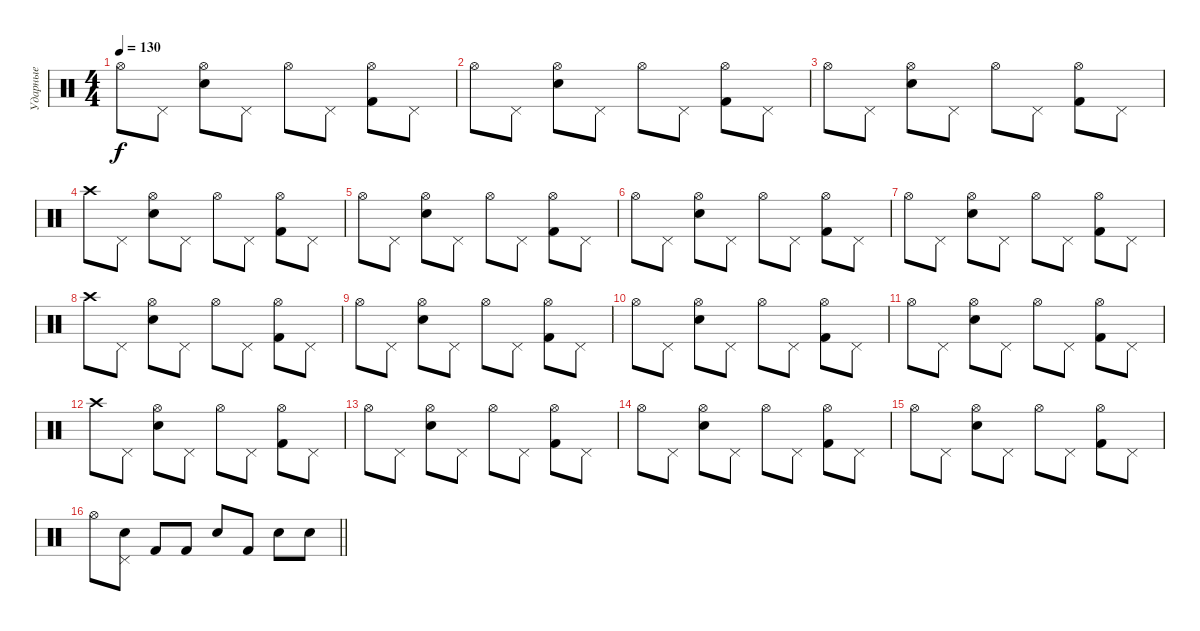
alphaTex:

\track ("Ударные" "Ударные") {instrument percussion}
\staff {score}
\articulation defaults
\ts (4 4)
\tempo 130
\clef neutral
\ks c "Hi-Hat (open)".8{dy f} "Pedal Hi-Hat (hit)".8
("Snare (hit) 2" "Hi-Hat (open)").8 "Pedal Hi-Hat (hit)".8 "Hi-Hat (open)".8 "Pedal Hi-Hat (hit)".8 ("Kick (hit) 2" "Hi-Hat (open)").8 "Pedal Hi-Hat (hit)".8 |
"Hi-Hat (open)".8 "Pedal Hi-Hat (hit)".8 ("Snare (hit) 2" "Hi-Hat (open)").8 "Pedal Hi-Hat (hit)".8 "Hi-Hat (open)".8 "Pedal Hi-Hat (hit)".8 ("Kick (hit) 2" "Hi-Hat (open)").8 "Pedal Hi-Hat (hit)".8 |
"Hi-Hat (open)".8 "Pedal Hi-Hat (hit)".8 ("Snare (hit) 2" "Hi-Hat (open)").8 "Pedal Hi-Hat (hit)".8 "Hi-Hat (open)".8 "Pedal Hi-Hat (hit)".8 ("Kick (hit) 2" "Hi-Hat (open)").8 "Pedal Hi-Hat (hit)".8 |
"Crash high (hit)".8 "Pedal Hi-Hat (hit)".8 ("Snare (hit) 2" "Hi-Hat (open)").8 "Pedal Hi-Hat (hit)".8 "Hi-Hat (open)".8 "Pedal Hi-Hat (hit)".8 ("Kick (hit) 2" "Hi-Hat (open)").8 "Pedal Hi-Hat (hit)".8 |
"Hi-Hat (open)".8 "Pedal Hi-Hat (hit)".8 ("Snare (hit) 2" "Hi-Hat (open)").8 "Pedal Hi-Hat (hit)".8 "Hi-Hat (open)".8 "Pedal Hi-Hat (hit)".8 ("Kick (hit) 2" "Hi-Hat (open)").8 "Pedal Hi-Hat (hit)".8 |
"Hi-Hat (open)".8 "Pedal Hi-Hat (hit)".8 ("Snare (hit) 2" "Hi-Hat (open)").8 "Pedal Hi-Hat (hit)".8 "Hi-Hat (open)".8 "Pedal Hi-Hat (hit)".8 ("Kick (hit) 2" "Hi-Hat (open)").8 "Pedal Hi-Hat (hit)".8 |
"Hi-Hat (open)".8 "Pedal Hi-Hat (hit)".8 ("Snare (hit) 2" "Hi-Hat (open)").8 "Pedal Hi-Hat (hit)".8 "Hi-Hat (open)".8 "Pedal Hi-Hat (hit)".8 ("Kick (hit) 2" "Hi-Hat (open)").8 "Pedal Hi-Hat (hit)".8 |
"Crash high (hit)".8 "Pedal Hi-Hat (hit)".8 ("Snare (hit) 2" "Hi-Hat (open)").8 "Pedal Hi-Hat (hit)".8 "Hi-Hat (open)".8 "Pedal Hi-Hat (hit)".8 ("Kick (hit) 2" "Hi-Hat (open)").8 "Pedal Hi-Hat (hit)".8 |
"Hi-Hat (open)".8 "Pedal Hi-Hat (hit)".8 ("Snare (hit) 2" "Hi-Hat (open)").8 "Pedal Hi-Hat (hit)".8 "Hi-Hat (open)".8 "Pedal Hi-Hat (hit)".8 ("Kick (hit) 2" "Hi-Hat (open)").8 "Pedal Hi-Hat (hit)".8 |
"Hi-Hat (open)".8 "Pedal Hi-Hat (hit)".8 ("Snare (hit) 2" "Hi-Hat (open)").8 "Pedal Hi-Hat (hit)".8 "Hi-Hat (open)".8 "Pedal Hi-Hat (hit)".8 ("Kick (hit) 2" "Hi-Hat (open)").8 "Pedal Hi-Hat (hit)".8 |
"Hi-Hat (open)".8 "Pedal Hi-Hat (hit)".8 ("Snare (hit) 2" "Hi-Hat (open)").8 "Pedal Hi-Hat (hit)".8 "Hi-Hat (open)".8 "Pedal Hi-Hat (hit)".8 ("Kick (hit) 2" "Hi-Hat (open)").8 "Pedal Hi-Hat (hit)".8 |
"Crash high (hit)".8 "Pedal Hi-Hat (hit)".8 ("Snare (hit) 2" "Hi-Hat (open)").8 "Pedal Hi-Hat (hit)".8 "Hi-Hat (open)".8 "Pedal Hi-Hat (hit)".8 ("Kick (hit) 2" "Hi-Hat (open)").8 "Pedal Hi-Hat (hit)".8 |
"Hi-Hat (open)".8 "Pedal Hi-Hat (hit)".8 ("Snare (hit) 2" "Hi-Hat (open)").8 "Pedal Hi-Hat (hit)".8 "Hi-Hat (open)".8 "Pedal Hi-Hat (hit)".8 ("Kick (hit) 2" "Hi-Hat (open)").8 "Pedal Hi-Hat (hit)".8 |
"Hi-Hat (open)".8 "Pedal Hi-Hat (hit)".8 ("Snare (hit) 2" "Hi-Hat (open)").8 "Pedal Hi-Hat (hit)".8 "Hi-Hat (open)".8 "Pedal Hi-Hat (hit)".8 ("Kick (hit) 2" "Hi-Hat (open)").8 "Pedal Hi-Hat (hit)".8 |
"Hi-Hat (open)".8 "Pedal Hi-Hat (hit)".8 ("Snare (hit) 2" "Hi-Hat (open)").8 "Pedal Hi-Hat (hit)".8 "Hi-Hat (open)".8 "Pedal Hi-Hat (hit)".8 ("Kick (hit) 2" "Hi-Hat (open)").8 "Pedal Hi-Hat (hit)".8 |
\barLineRight lightlight "Hi-Hat (open)".8
("Snare (hit) 2" "Pedal Hi-Hat (hit)").8 "Kick (hit) 2".8 "Kick (hit) 2".8 "Snare (hit) 2".8 "Kick (hit) 2".8 "Snare (hit) 2".8 "Snare (hit) 2".8
